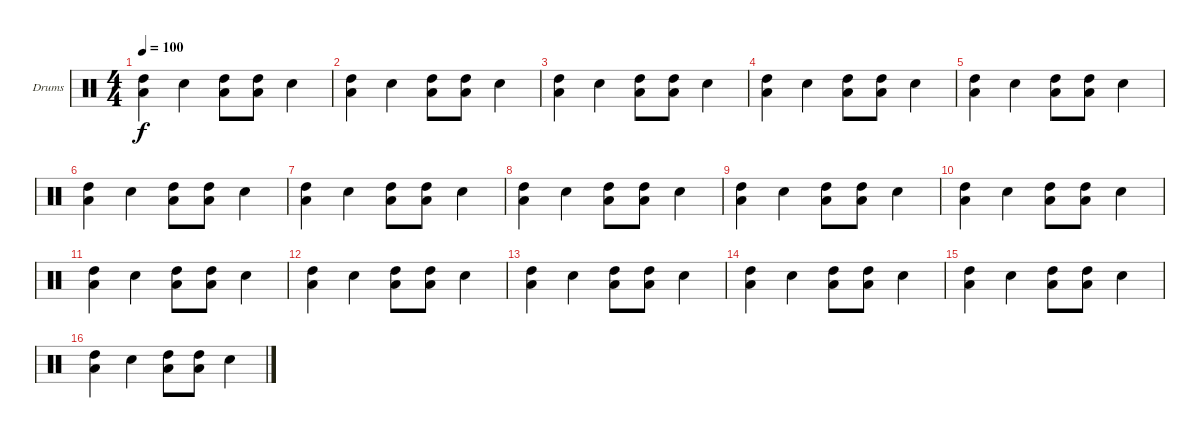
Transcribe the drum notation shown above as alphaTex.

\bracketExtendMode groupsimilarinstruments
\firstSystemTrackNameOrientation horizontal
\otherSystemsTrackNameOrientation horizontal
\track ("Drumkit" "Drums") {instrument percussion}
\staff {score}
\articulation defaults
\ts (4 4)
\tempo 100
\clef neutral
\ks c
("High Tom (hit)" "Low Tom (hit)").4{dy f} "Snare (hit) 2".4 ("High Tom (hit)" "Low Tom (hit)").8 ("High Tom (hit)" "Low Tom (hit)").8 "Snare (hit) 2".4 |
("High Tom (hit)" "Low Tom (hit)").4 "Snare (hit) 2".4 ("High Tom (hit)" "Low Tom (hit)").8 ("High Tom (hit)" "Low Tom (hit)").8 "Snare (hit) 2".4 |
("High Tom (hit)" "Low Tom (hit)").4 "Snare (hit) 2".4 ("High Tom (hit)" "Low Tom (hit)").8 ("High Tom (hit)" "Low Tom (hit)").8 "Snare (hit) 2".4 |
("High Tom (hit)" "Low Tom (hit)").4 "Snare (hit) 2".4 ("High Tom (hit)" "Low Tom (hit)").8 ("High Tom (hit)" "Low Tom (hit)").8 "Snare (hit) 2".4 |
("High Tom (hit)" "Low Tom (hit)").4 "Snare (hit) 2".4 ("High Tom (hit)" "Low Tom (hit)").8 ("High Tom (hit)" "Low Tom (hit)").8 "Snare (hit) 2".4 |
("High Tom (hit)" "Low Tom (hit)").4 "Snare (hit) 2".4 ("High Tom (hit)" "Low Tom (hit)").8 ("High Tom (hit)" "Low Tom (hit)").8 "Snare (hit) 2".4 |
("High Tom (hit)" "Low Tom (hit)").4 "Snare (hit) 2".4 ("High Tom (hit)" "Low Tom (hit)").8 ("High Tom (hit)" "Low Tom (hit)").8 "Snare (hit) 2".4 |
("High Tom (hit)" "Low Tom (hit)").4 "Snare (hit) 2".4 ("High Tom (hit)" "Low Tom (hit)").8 ("High Tom (hit)" "Low Tom (hit)").8 "Snare (hit) 2".4 |
("High Tom (hit)" "Low Tom (hit)").4 "Snare (hit) 2".4 ("High Tom (hit)" "Low Tom (hit)").8 ("High Tom (hit)" "Low Tom (hit)").8 "Snare (hit) 2".4 |
("High Tom (hit)" "Low Tom (hit)").4 "Snare (hit) 2".4 ("High Tom (hit)" "Low Tom (hit)").8 ("High Tom (hit)" "Low Tom (hit)").8 "Snare (hit) 2".4 |
("High Tom (hit)" "Low Tom (hit)").4 "Snare (hit) 2".4 ("High Tom (hit)" "Low Tom (hit)").8 ("High Tom (hit)" "Low Tom (hit)").8 "Snare (hit) 2".4 |
("High Tom (hit)" "Low Tom (hit)").4 "Snare (hit) 2".4 ("High Tom (hit)" "Low Tom (hit)").8 ("High Tom (hit)" "Low Tom (hit)").8 "Snare (hit) 2".4 |
("High Tom (hit)" "Low Tom (hit)").4 "Snare (hit) 2".4 ("High Tom (hit)" "Low Tom (hit)").8 ("High Tom (hit)" "Low Tom (hit)").8 "Snare (hit) 2".4 |
("High Tom (hit)" "Low Tom (hit)").4 "Snare (hit) 2".4 ("High Tom (hit)" "Low Tom (hit)").8 ("High Tom (hit)" "Low Tom (hit)").8 "Snare (hit) 2".4 |
("High Tom (hit)" "Low Tom (hit)").4 "Snare (hit) 2".4 ("High Tom (hit)" "Low Tom (hit)").8 ("High Tom (hit)" "Low Tom (hit)").8 "Snare (hit) 2".4 |
("High Tom (hit)" "Low Tom (hit)").4 "Snare (hit) 2".4 ("High Tom (hit)" "Low Tom (hit)").8 ("High Tom (hit)" "Low Tom (hit)").8 "Snare (hit) 2".4
